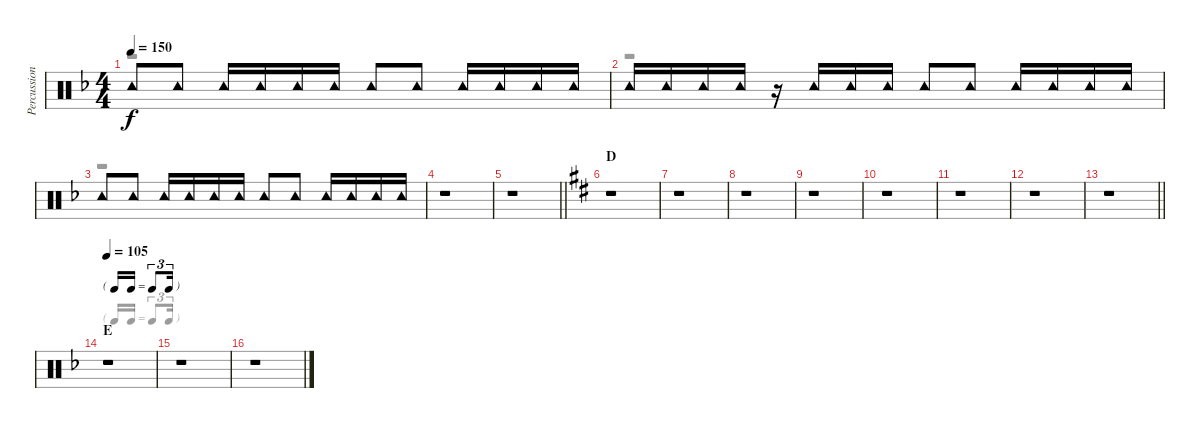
\track ("Percussion" "Percussion") {instrument percussion}
\staff {score}
\articulation defaults
\voice
\ts (4 4)
\tempo 150
\clef neutral
\ks f "Tambourine (hit)".8{dy f} "Tambourine (hit)".8 "Tambourine (hit)".16 "Tambourine (hit)".16 "Tambourine (hit)".16 "Tambourine (hit)".16 "Tambourine (hit)".8 "Tambourine (hit)".8 "Tambourine (hit)".16 "Tambourine (hit)".16 "Tambourine (hit)".16 "Tambourine (hit)".16
|
"Tambourine (hit)".16 "Tambourine (hit)".16 "Tambourine (hit)".16 "Tambourine (hit)".16 r.16 "Tambourine (hit)".16 "Tambourine (hit)".16 "Tambourine (hit)".16 "Tambourine (hit)".8 "Tambourine (hit)".8 "Tambourine (hit)".16 "Tambourine (hit)".16 "Tambourine (hit)".16 "Tambourine (hit)".16 |
"Tambourine (hit)".8 "Tambourine (hit)".8 "Tambourine (hit)".16 "Tambourine (hit)".16 "Tambourine (hit)".16 "Tambourine (hit)".16 "Tambourine (hit)".8 "Tambourine (hit)".8 "Tambourine (hit)".16 "Tambourine (hit)".16 "Tambourine (hit)".16 "Tambourine (hit)".16 |
r.1 |
\barLineRight lightlight
r.1 |
\section ("" "D")
\ks d
r.1 |
r.1 |
r.1 |
r.1 |
r.1 |
r.1 |
r.1 |
\barLineRight lightlight
r.1 |
\tf triplet16th
\section ("" "E")
\tempo 105
\ks f
r.1 |
r.1 |
r.1
\voice
\clef neutral
\ottava regular
\simile none
\ks f
r.1{dy f} |
r.1 |
r.1 |
r.1 |
\barLineRight lightlight
r.1 |
\ks d
r.1 |
r.1 |
r.1 |
r.1 |
r.1 |
r.1 |
r.1 |
\barLineRight lightlight
r.1 |
\ks f
r.1 |
r.1 |
r.1
